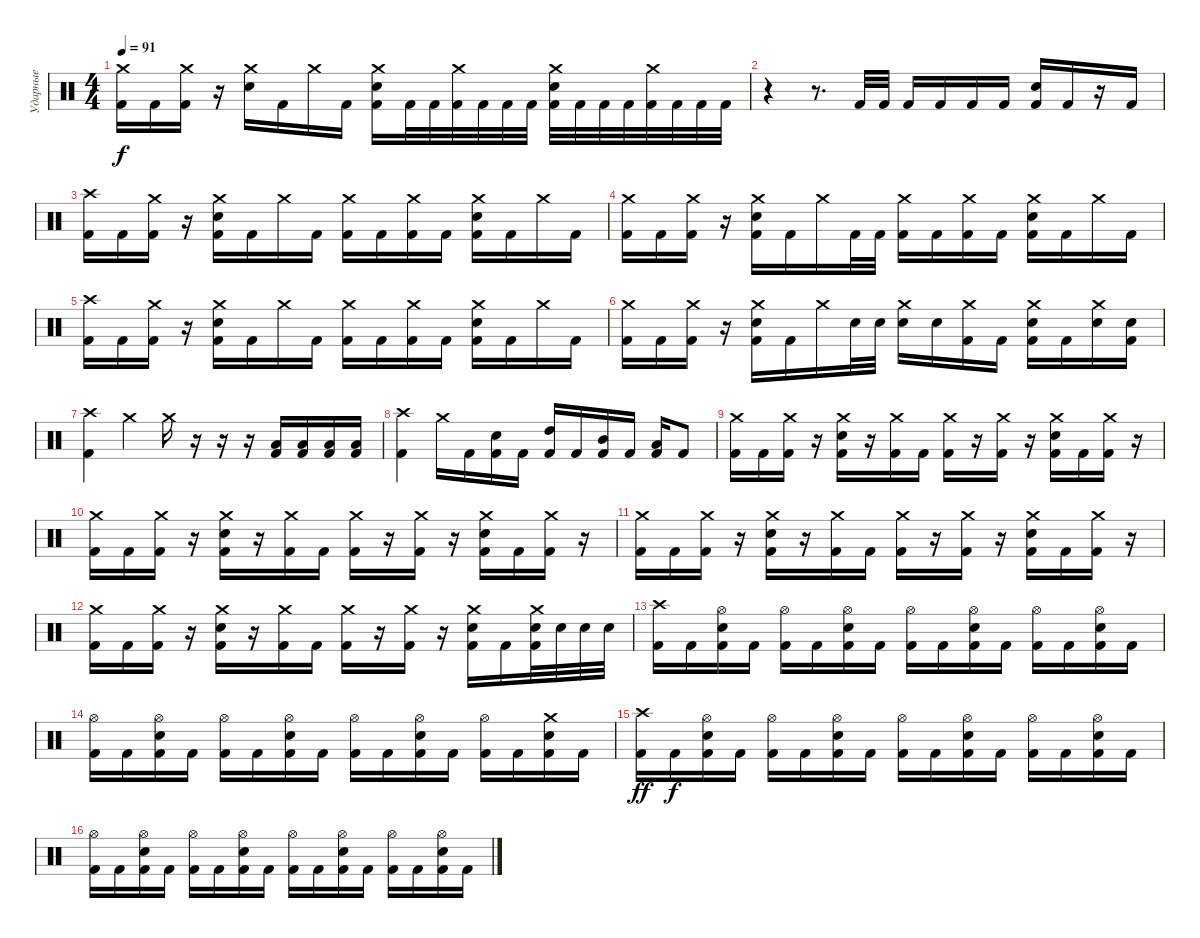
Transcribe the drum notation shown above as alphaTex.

\track ("Ударные" "Ударные") {instrument percussion}
\staff {score}
\articulation defaults
\ts (4 4)
\tempo 91
\clef neutral
\ks c
("Crash medium (hit)" "Kick (hit) 2").16{dy f} "Kick (hit) 2".16 ("Crash medium (hit)" "Kick (hit) 2").16 r.16 ("Crash medium (hit)" "Electric Snare (hit)").16 "Kick (hit) 2".16 "Crash medium (hit)".16 "Kick (hit) 2".16 ("Crash medium (hit)" "Kick (hit) 2" "Electric Snare (hit)").16 "Kick (hit) 2".32 "Kick (hit) 2".32 ("Crash medium (hit)" "Kick (hit) 2").32 "Kick (hit) 2".32 "Kick (hit) 2".32 "Kick (hit) 2".32 ("Crash medium (hit)" "Kick (hit) 2" "Electric Snare (hit)").32 "Kick (hit) 2".32 "Kick (hit) 2".32 "Kick (hit) 2".32 ("Crash medium (hit)" "Kick (hit) 2").32 "Kick (hit) 2".32 "Kick (hit) 2".32 "Kick (hit) 2".32 |
r.4 r.8{d} "Kick (hit) 2".32 "Kick (hit) 2".32 "Kick (hit) 2".16 "Kick (hit) 2".16 "Kick (hit) 2".16 "Kick (hit) 2".16 ("Electric Snare (hit)" "Kick (hit) 2").16 "Kick (hit) 2".16 r.16 "Kick (hit) 2".16 |
("Crash high (hit)" "Kick (hit) 2").16 "Kick (hit) 2".16 ("Crash medium (hit)" "Kick (hit) 2").16 r.16 ("Crash medium (hit)" "Electric Snare (hit)" "Kick (hit) 2").16 "Kick (hit) 2".16 "Crash medium (hit)".16 "Kick (hit) 2".16 ("Crash medium (hit)" "Kick (hit) 2").16 "Kick (hit) 2".16 ("Crash medium (hit)" "Kick (hit) 2").16 "Kick (hit) 2".16 ("Crash medium (hit)" "Electric Snare (hit)" "Kick (hit) 2").16 "Kick (hit) 2".16 "Crash medium (hit)".16 "Kick (hit) 2".16 |
("Crash medium (hit)" "Kick (hit) 2").16 "Kick (hit) 2".16 ("Crash medium (hit)" "Kick (hit) 2").16 r.16 ("Crash medium (hit)" "Electric Snare (hit)" "Kick (hit) 2").16 "Kick (hit) 2".16 "Crash medium (hit)".16 "Kick (hit) 2".32 "Kick (hit) 2".32 ("Crash medium (hit)" "Kick (hit) 2").16 "Kick (hit) 2".16 ("Crash medium (hit)" "Kick (hit) 2").16 "Kick (hit) 2".16 ("Crash medium (hit)" "Electric Snare (hit)" "Kick (hit) 2").16 "Kick (hit) 2".16 "Crash medium (hit)".16 "Kick (hit) 2".16 |
("Crash high (hit)" "Kick (hit) 2").16 "Kick (hit) 2".16 ("Crash medium (hit)" "Kick (hit) 2").16 r.16 ("Crash medium (hit)" "Electric Snare (hit)" "Kick (hit) 2").16 "Kick (hit) 2".16 "Crash medium (hit)".16 "Kick (hit) 2".16 ("Crash medium (hit)" "Kick (hit) 2").16 "Kick (hit) 2".16 ("Crash medium (hit)" "Kick (hit) 2").16 "Kick (hit) 2".16 ("Crash medium (hit)" "Electric Snare (hit)" "Kick (hit) 2").16 "Kick (hit) 2".16 "Crash medium (hit)".16 "Kick (hit) 2".16 |
("Crash medium (hit)" "Kick (hit) 2").16 "Kick (hit) 2".16 ("Crash medium (hit)" "Kick (hit) 2").16 r.16 ("Crash medium (hit)" "Electric Snare (hit)" "Kick (hit) 2").16 "Kick (hit) 2".16 "Crash medium (hit)".16 "Electric Snare (hit)".32 "Electric Snare (hit)".32 ("Crash medium (hit)" "Electric Snare (hit)").16 "Electric Snare (hit)".16 ("Crash medium (hit)" "Kick (hit) 2").16 "Kick (hit) 2".16 ("Crash medium (hit)" "Kick (hit) 2" "Electric Snare (hit)").16 "Kick (hit) 2".16 ("Crash medium (hit)" "Electric Snare (hit)").16 ("Kick (hit) 2" "Electric Snare (hit)").16 |
("Crash high (hit)" "Kick (hit) 2").4 "Crash medium (hit)".4 "Crash medium (hit)".16 r.16 r.16 r.16 ("Low Tom (hit)" "Kick (hit) 2").16 ("Low Tom (hit)" "Kick (hit) 2").16 ("Low Tom (hit)" "Kick (hit) 2").16 ("Low Tom (hit)" "Kick (hit) 2").16 |
("Crash high (hit)" "Kick (hit) 2").4 "Crash medium (hit)".16 "Kick (hit) 2".16 ("Electric Snare (hit)" "Kick (hit) 2").16 "Kick (hit) 2".16 ("High Tom (hit)" "Kick (hit) 2").16 "Kick (hit) 2".16 ("Mid Tom (hit)" "Kick (hit) 2").16 "Kick (hit) 2".16 ("Low Tom (hit)" "Kick (hit) 2").16 "Kick (hit) 2".8 |
("Crash medium (hit)" "Kick (hit) 2").16 "Kick (hit) 2".16 ("Crash medium (hit)" "Kick (hit) 2").16 r.16 ("Crash medium (hit)" "Electric Snare (hit)" "Kick (hit) 2").16 r.16 ("Crash medium (hit)" "Kick (hit) 2").16 "Kick (hit) 2".16 ("Crash medium (hit)" "Kick (hit) 2").16 r.16 ("Crash medium (hit)" "Kick (hit) 2").16 r.16 ("Crash medium (hit)" "Electric Snare (hit)" "Kick (hit) 2").16 "Kick (hit) 2".16 ("Crash medium (hit)" "Kick (hit) 2").16 r.16 |
("Crash medium (hit)" "Kick (hit) 2").16 "Kick (hit) 2".16 ("Crash medium (hit)" "Kick (hit) 2").16 r.16 ("Crash medium (hit)" "Electric Snare (hit)" "Kick (hit) 2").16 r.16 ("Crash medium (hit)" "Kick (hit) 2").16 "Kick (hit) 2".16 ("Crash medium (hit)" "Kick (hit) 2").16 r.16 ("Crash medium (hit)" "Kick (hit) 2").16 r.16 ("Crash medium (hit)" "Electric Snare (hit)" "Kick (hit) 2").16 "Kick (hit) 2".16 ("Crash medium (hit)" "Kick (hit) 2").16 r.16 |
("Crash medium (hit)" "Kick (hit) 2").16 "Kick (hit) 2".16 ("Crash medium (hit)" "Kick (hit) 2").16 r.16 ("Crash medium (hit)" "Electric Snare (hit)" "Kick (hit) 2").16 r.16 ("Crash medium (hit)" "Kick (hit) 2").16 "Kick (hit) 2".16 ("Crash medium (hit)" "Kick (hit) 2").16 r.16 ("Crash medium (hit)" "Kick (hit) 2").16 r.16 ("Crash medium (hit)" "Electric Snare (hit)" "Kick (hit) 2").16 "Kick (hit) 2".16 ("Crash medium (hit)" "Kick (hit) 2").16 r.16 |
("Crash medium (hit)" "Kick (hit) 2").16 "Kick (hit) 2".16 ("Crash medium (hit)" "Kick (hit) 2").16 r.16 ("Crash medium (hit)" "Electric Snare (hit)" "Kick (hit) 2").16 r.16 ("Crash medium (hit)" "Kick (hit) 2").16 "Kick (hit) 2".16 ("Crash medium (hit)" "Kick (hit) 2").16 r.16 ("Crash medium (hit)" "Kick (hit) 2").16 r.16 ("Crash medium (hit)" "Electric Snare (hit)" "Kick (hit) 2").16 "Kick (hit) 2".16 ("Crash medium (hit)" "Electric Snare (hit)" "Kick (hit) 2").32 "Electric Snare (hit)".32 "Electric Snare (hit)".32 "Electric Snare (hit)".32 |
("Crash high (hit)" "Kick (hit) 2").16 "Kick (hit) 2".16 ("Hi-Hat (open)" "Electric Snare (hit)" "Kick (hit) 2").16 "Kick (hit) 2".16 ("Hi-Hat (open)" "Kick (hit) 2").16 "Kick (hit) 2".16 ("Hi-Hat (open)" "Electric Snare (hit)" "Kick (hit) 2").16 "Kick (hit) 2".16 ("Hi-Hat (open)" "Kick (hit) 2").16 "Kick (hit) 2".16 ("Hi-Hat (open)" "Electric Snare (hit)" "Kick (hit) 2").16 "Kick (hit) 2".16 ("Hi-Hat (open)" "Kick (hit) 2").16 "Kick (hit) 2".16 ("Hi-Hat (open)" "Electric Snare (hit)" "Kick (hit) 2").16 "Kick (hit) 2".16 |
("Hi-Hat (open)" "Kick (hit) 2").16 "Kick (hit) 2".16 ("Hi-Hat (open)" "Electric Snare (hit)" "Kick (hit) 2").16 "Kick (hit) 2".16 ("Hi-Hat (open)" "Kick (hit) 2").16 "Kick (hit) 2".16 ("Hi-Hat (open)" "Electric Snare (hit)" "Kick (hit) 2").16 "Kick (hit) 2".16 ("Hi-Hat (open)" "Kick (hit) 2").16 "Kick (hit) 2".16 ("Hi-Hat (open)" "Electric Snare (hit)" "Kick (hit) 2").16 "Kick (hit) 2".16 ("Hi-Hat (open)" "Kick (hit) 2").16 "Kick (hit) 2".16 ("Crash medium (hit)" "Electric Snare (hit)" "Kick (hit) 2").16 "Kick (hit) 2".16 |
("Crash high (hit)" "Kick (hit) 2").16{dy ff} "Kick (hit) 2".16{dy f} ("Hi-Hat (open)" "Electric Snare (hit)" "Kick (hit) 2").16 "Kick (hit) 2".16 ("Hi-Hat (open)" "Kick (hit) 2").16 "Kick (hit) 2".16 ("Hi-Hat (open)" "Electric Snare (hit)" "Kick (hit) 2").16 "Kick (hit) 2".16 ("Hi-Hat (open)" "Kick (hit) 2").16 "Kick (hit) 2".16 ("Hi-Hat (open)" "Electric Snare (hit)" "Kick (hit) 2").16 "Kick (hit) 2".16 ("Hi-Hat (open)" "Kick (hit) 2").16 "Kick (hit) 2".16 ("Hi-Hat (open)" "Electric Snare (hit)" "Kick (hit) 2").16 "Kick (hit) 2".16 |
("Hi-Hat (open)" "Kick (hit) 2").16 "Kick (hit) 2".16 ("Hi-Hat (open)" "Electric Snare (hit)" "Kick (hit) 2").16 "Kick (hit) 2".16 ("Hi-Hat (open)" "Kick (hit) 2").16 "Kick (hit) 2".16 ("Hi-Hat (open)" "Electric Snare (hit)" "Kick (hit) 2").16 "Kick (hit) 2".16 ("Hi-Hat (open)" "Kick (hit) 2").16 "Kick (hit) 2".16 ("Hi-Hat (open)" "Electric Snare (hit)" "Kick (hit) 2").16 "Kick (hit) 2".16 ("Hi-Hat (open)" "Kick (hit) 2").16 "Kick (hit) 2".16 ("Hi-Hat (open)" "Electric Snare (hit)" "Kick (hit) 2").16 "Kick (hit) 2".16
